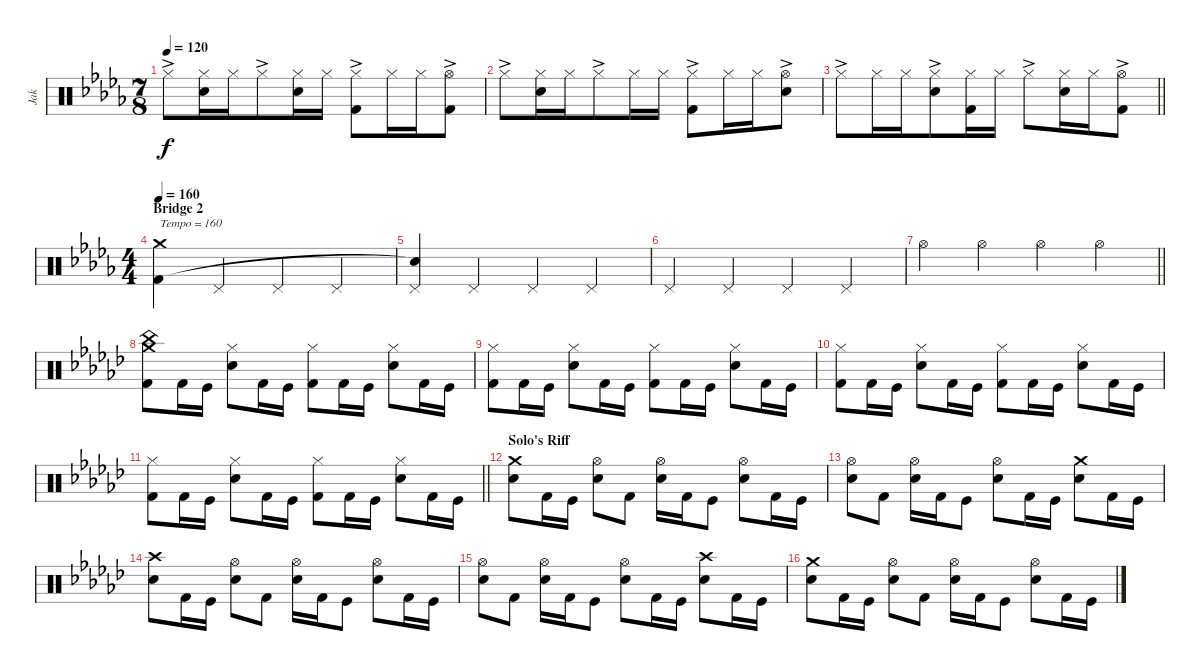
\track ("Jak" "Jak") {instrument percussion}
\staff {score}
\articulation defaults
\ts (7 8)
\tempo 120
\clef neutral
\ks bbminor "Hi-Hat (closed)"{ac}.8{dy f}
("Hi-Hat (closed)" "Snare (hit) 2").16 "Hi-Hat (closed)".16 "Hi-Hat (closed)"{ac}.8 ("Hi-Hat (closed)" "Snare (hit) 2").16 "Hi-Hat (closed)".16 ("Hi-Hat (closed)"{ac} "Kick (hit) 2").8 "Hi-Hat (closed)".16 "Hi-Hat (closed)".16 ("Hi-Hat (open)"{ac} "Kick (hit) 2").8 |
"Hi-Hat (closed)"{ac}.8 ("Hi-Hat (closed)" "Snare (hit) 2").16 "Hi-Hat (closed)".16 "Hi-Hat (closed)"{ac}.8 "Hi-Hat (closed)".16 "Hi-Hat (closed)".16 ("Hi-Hat (closed)"{ac} "Kick (hit) 2").8 "Hi-Hat (closed)".16 "Hi-Hat (closed)".16 ("Hi-Hat (open)"{ac} "Snare (hit) 2").8 |
\barLineRight lightlight "Hi-Hat (closed)"{ac}.8 "Hi-Hat (closed)".16 "Hi-Hat (closed)".16
("Hi-Hat (closed)"{ac} "Snare (hit) 2").8 ("Hi-Hat (closed)" "Kick (hit) 2").16 "Hi-Hat (closed)".16 "Hi-Hat (closed)"{ac}.8 ("Hi-Hat (closed)" "Snare (hit) 2").16 "Hi-Hat (closed)".16 ("Hi-Hat (open)"{ac} "Kick (hit) 2").8 |
\ts (4 4)
\section ("" "Bridge 2")
\tempo 160
("Crash medium (hit)" "Kick (hit) 2").4{txt "Tempo = 160"} "Pedal Hi-Hat (hit)".4 "Pedal Hi-Hat (hit)".4 "Pedal Hi-Hat (hit)".4 |
("Pedal Hi-Hat (hit)" "Snare (hit)"{t}).4 "Pedal Hi-Hat (hit)".4 "Pedal Hi-Hat (hit)".4 "Pedal Hi-Hat (hit)".4 |
"Pedal Hi-Hat (hit)".4 "Pedal Hi-Hat (hit)".4 "Pedal Hi-Hat (hit)".4 "Pedal Hi-Hat (hit)".4 |
\barLineRight lightlight "Hi-Hat (open)".4 "Hi-Hat (open)".4 "Hi-Hat (open)".4 "Hi-Hat (open)".4
|
\ks ebminor
("China (hit)" "Crash medium (hit)" "Kick (hit) 2").8 "Kick (hit) 2".16 "Kick (hit)".16 ("Hi-Hat (closed)" "Snare (hit) 2").8 "Kick (hit) 2".16 "Kick (hit)".16 ("Hi-Hat (closed)" "Kick (hit) 2").8 "Kick (hit) 2".16 "Kick (hit)".16 ("Hi-Hat (closed)" "Snare (hit) 2").8 "Kick (hit) 2".16 "Kick (hit)".16 |
("Hi-Hat (closed)" "Kick (hit) 2").8 "Kick (hit) 2".16 "Kick (hit)".16 ("Hi-Hat (closed)" "Snare (hit) 2").8 "Kick (hit) 2".16 "Kick (hit)".16 ("Hi-Hat (closed)" "Kick (hit) 2").8 "Kick (hit) 2".16 "Kick (hit)".16 ("Hi-Hat (closed)" "Snare (hit) 2").8 "Kick (hit) 2".16 "Kick (hit)".16 |
("Hi-Hat (closed)" "Kick (hit) 2").8 "Kick (hit) 2".16 "Kick (hit)".16 ("Hi-Hat (closed)" "Snare (hit) 2").8 "Kick (hit) 2".16 "Kick (hit)".16 ("Hi-Hat (closed)" "Kick (hit) 2").8 "Kick (hit) 2".16 "Kick (hit)".16 ("Hi-Hat (closed)" "Snare (hit) 2").8 "Kick (hit) 2".16 "Kick (hit)".16 |
\barLineRight lightlight
("Hi-Hat (closed)" "Kick (hit) 2").8 "Kick (hit) 2".16 "Kick (hit)".16 ("Hi-Hat (closed)" "Snare (hit) 2").8 "Kick (hit) 2".16 "Kick (hit)".16 ("Hi-Hat (closed)" "Kick (hit) 2").8 "Kick (hit) 2".16 "Kick (hit)".16 ("Hi-Hat (closed)" "Snare (hit) 2").8 "Kick (hit) 2".16 "Kick (hit)".16 |
\section ("" "Solo's Riff")
("Crash medium (hit)" "Snare (hit) 2").8 "Kick (hit) 2".16 "Kick (hit)".16 ("Hi-Hat (open)" "Snare (hit) 2").8 "Kick (hit) 2".8 ("Hi-Hat (open)" "Snare (hit) 2").16 "Kick (hit) 2".16 "Kick (hit)".8 ("Hi-Hat (open)" "Snare (hit) 2").8 "Kick (hit) 2".16 "Kick (hit)".16 |
("Hi-Hat (open)" "Snare (hit) 2").8 "Kick (hit) 2".8 ("Hi-Hat (open)" "Snare (hit) 2").16 "Kick (hit) 2".16 "Kick (hit)".8 ("Hi-Hat (open)" "Snare (hit) 2").8 "Kick (hit) 2".16 "Kick (hit)".16 ("Crash medium (hit)" "Snare (hit) 2").8 "Kick (hit) 2".16 "Kick (hit)".16 |
("Crash high (hit)" "Snare (hit) 2").8 "Kick (hit) 2".16 "Kick (hit)".16 ("Hi-Hat (open)" "Snare (hit) 2").8 "Kick (hit) 2".8 ("Hi-Hat (open)" "Snare (hit) 2").16 "Kick (hit) 2".16 "Kick (hit)".8 ("Hi-Hat (open)" "Snare (hit) 2").8 "Kick (hit) 2".16 "Kick (hit)".16 |
("Hi-Hat (open)" "Snare (hit) 2").8 "Kick (hit) 2".8 ("Hi-Hat (open)" "Snare (hit) 2").16 "Kick (hit) 2".16 "Kick (hit)".8 ("Hi-Hat (open)" "Snare (hit) 2").8 "Kick (hit) 2".16 "Kick (hit)".16 ("Crash high (hit)" "Snare (hit) 2").8 "Kick (hit) 2".16 "Kick (hit)".16 |
("Crash medium (hit)" "Snare (hit) 2").8 "Kick (hit) 2".16 "Kick (hit)".16 ("Hi-Hat (open)" "Snare (hit) 2").8 "Kick (hit) 2".8 ("Hi-Hat (open)" "Snare (hit) 2").16 "Kick (hit) 2".16 "Kick (hit)".8 ("Hi-Hat (open)" "Snare (hit) 2").8 "Kick (hit) 2".16 "Kick (hit)".16
